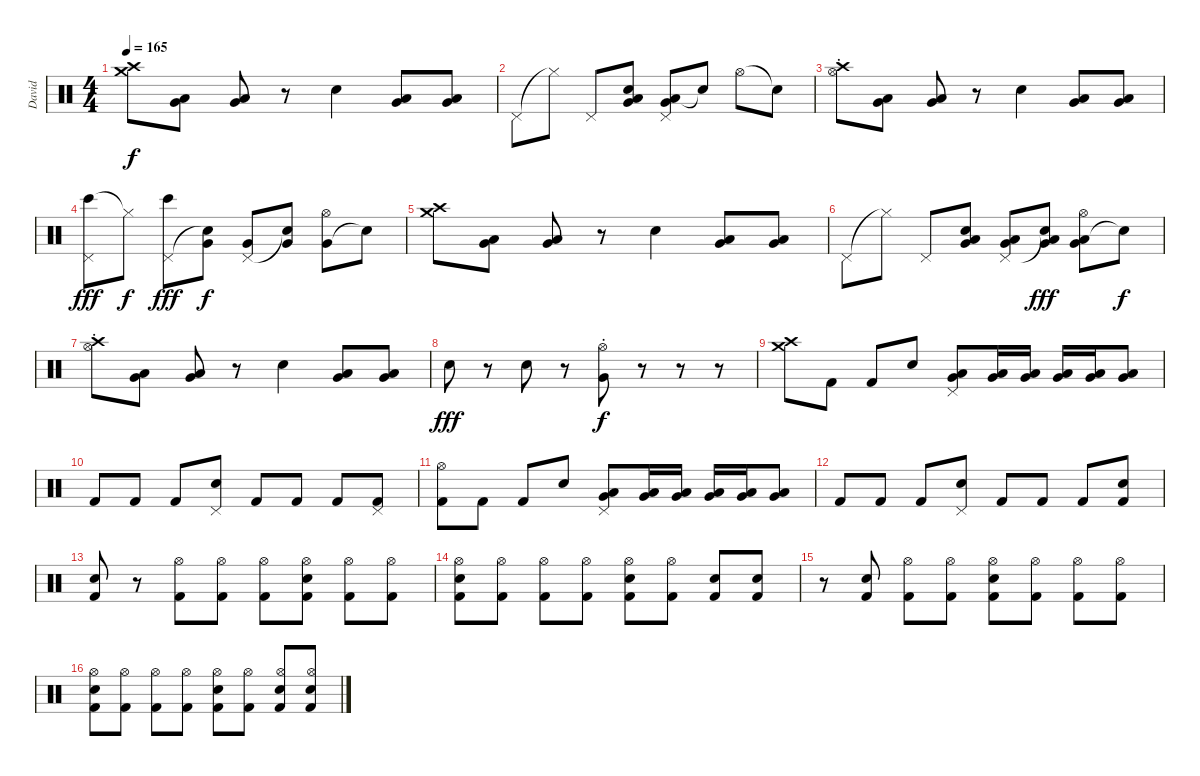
\track ("David" "David") {instrument percussion}
\staff {score}
\articulation defaults
\ts (4 4)
\tempo 165
\clef neutral
\ks c
("Crash high (hit)" "Crash medium (hit)").8{dy f} ("Low Floor Tom (hit)" "Very Low Tom (hit)").8 ("Low Floor Tom (hit)" "Very Low Tom (hit)").8 r.8 "Electric Snare (hit)".4 ("Low Floor Tom (hit)" "Very Low Tom (hit)").8 ("Low Floor Tom (hit)" "Very Low Tom (hit)").8 |
"Pedal Hi-Hat (hit)".8 "Hi-Hat (closed)"{t}.8 "Pedal Hi-Hat (hit)".8 ("Low Tom (hit)" "Very Low Tom (hit)" "Snare (hit)"{t}).8 ("Low Floor Tom (hit)" "Very Low Tom (hit)" "Pedal Hi-Hat (hit)").8 "Snare (hit)"{t}.8 "Hi-Hat (open)".8 "Snare (hit)"{t}.8 |
("Crash high (hit)" "Hi-Hat (open)"{st}).8 ("Low Floor Tom (hit)" "Very Low Tom (hit)").8 ("Low Floor Tom (hit)" "Very Low Tom (hit)").8 r.8 "Electric Snare (hit)".4 ("Low Floor Tom (hit)" "Very Low Tom (hit)").8 ("Low Floor Tom (hit)" "Very Low Tom (hit)").8 |
("Bongo High (hit)" "Pedal Hi-Hat (hit)").8{dy fff} "Hi-Hat (closed)"{t}.8{dy f} ("Bongo High (hit)" "Pedal Hi-Hat (hit)").8{dy fff} ("Very Low Tom (hit)" "Snare (hit)"{t}).8{dy f} ("Very Low Tom (hit)" "Pedal Hi-Hat (hit)").8 ("Very Low Tom (hit)" "Snare (hit)"{t}).8 ("Very Low Tom (hit)" "Hi-Hat (open)").8 "Snare (hit)"{t}.8 |
("Crash high (hit)" "Crash medium (hit)").8 ("Low Floor Tom (hit)" "Very Low Tom (hit)").8 ("Low Floor Tom (hit)" "Very Low Tom (hit)").8 r.8 "Electric Snare (hit)".4 ("Low Floor Tom (hit)" "Very Low Tom (hit)").8 ("Low Floor Tom (hit)" "Very Low Tom (hit)").8 |
"Pedal Hi-Hat (hit)".8 "Hi-Hat (closed)"{t}.8 "Pedal Hi-Hat (hit)".8 ("Low Tom (hit)" "Very Low Tom (hit)" "Snare (hit)").8 ("Low Floor Tom (hit)" "Very Low Tom (hit)" "Pedal Hi-Hat (hit)").8 ("Low Tom (hit)" "Very Low Tom (hit)" "Snare (hit)"{t}).8{dy fff} ("Low Floor Tom (hit)" "Very Low Tom (hit)" "Hi-Hat (open)").8 "Snare (hit)"{t}.8{dy f} |
("Crash high (hit)" "Hi-Hat (open)"{st}).8 ("Low Floor Tom (hit)" "Very Low Tom (hit)").8 ("Low Floor Tom (hit)" "Very Low Tom (hit)").8 r.8 "Electric Snare (hit)".4 ("Low Floor Tom (hit)" "Very Low Tom (hit)").8 ("Low Floor Tom (hit)" "Very Low Tom (hit)").8 |
"Electric Snare (hit)".8{dy fff} r.8 "Electric Snare (hit)".8 r.8 ("Very Low Tom (hit)" "Hi-Hat (open)"{st}).8{dy f} r.8 r.8 r.8 |
("Crash medium (hit)" "Crash high (hit)").8 "Kick (hit) 2".8 "Kick (hit) 2".8 "Electric Snare (hit)".8 ("Low Tom (hit)" "Very Low Tom (hit)" "Pedal Hi-Hat (hit)").8 ("Low Tom (hit)" "Very Low Tom (hit)").16 ("Low Tom (hit)" "Very Low Tom (hit)").16 ("Low Tom (hit)" "Very Low Tom (hit)").16 ("Low Tom (hit)" "Very Low Tom (hit)").16 ("Low Tom (hit)" "Very Low Tom (hit)").8 |
"Kick (hit) 2".8 "Kick (hit) 2".8 "Kick (hit) 2".8 ("Electric Snare (hit)" "Pedal Hi-Hat (hit)").8 "Kick (hit) 2".8 "Kick (hit) 2".8 "Kick (hit) 2".8 ("Pedal Hi-Hat (hit)" "Kick (hit) 2").8 |
("Hi-Hat (open)" "Kick (hit) 2").8 "Kick (hit) 2".8 "Kick (hit) 2".8 "Electric Snare (hit)".8 ("Low Tom (hit)" "Very Low Tom (hit)" "Pedal Hi-Hat (hit)").8 ("Low Tom (hit)" "Very Low Tom (hit)").16 ("Low Tom (hit)" "Very Low Tom (hit)").16 ("Low Tom (hit)" "Very Low Tom (hit)").16 ("Low Tom (hit)" "Very Low Tom (hit)").16 ("Low Tom (hit)" "Very Low Tom (hit)").8 |
"Kick (hit) 2".8 "Kick (hit) 2".8 "Kick (hit) 2".8 ("Electric Snare (hit)" "Pedal Hi-Hat (hit)").8 "Kick (hit) 2".8 "Kick (hit) 2".8 "Kick (hit) 2".8 ("Electric Snare (hit)" "Kick (hit) 2").8 |
("Electric Snare (hit)" "Kick (hit) 2").8 r.8 ("Hi-Hat (open)" "Kick (hit) 2").8 ("Hi-Hat (open)" "Kick (hit) 2").8 ("Hi-Hat (open)" "Kick (hit) 2").8 ("Electric Snare (hit)" "Hi-Hat (open)" "Kick (hit) 2").8 ("Hi-Hat (open)" "Kick (hit) 2").8 ("Hi-Hat (open)" "Kick (hit) 2").8 |
("Electric Snare (hit)" "Hi-Hat (open)" "Kick (hit) 2").8 ("Hi-Hat (open)" "Kick (hit) 2").8 ("Hi-Hat (open)" "Kick (hit) 2").8 ("Hi-Hat (open)" "Kick (hit) 2").8 ("Electric Snare (hit)" "Hi-Hat (open)" "Kick (hit) 2").8 ("Hi-Hat (open)" "Kick (hit) 2").8 ("Electric Snare (hit)" "Kick (hit) 2").8 ("Electric Snare (hit)" "Kick (hit) 2").8 |
r.8 ("Electric Snare (hit)" "Kick (hit) 2").8 ("Hi-Hat (open)" "Kick (hit) 2").8 ("Hi-Hat (open)" "Kick (hit) 2").8 ("Electric Snare (hit)" "Hi-Hat (open)" "Kick (hit) 2").8 ("Hi-Hat (open)" "Kick (hit) 2").8 ("Hi-Hat (open)" "Kick (hit) 2").8 ("Hi-Hat (open)" "Kick (hit) 2").8 |
("Electric Snare (hit)" "Hi-Hat (open)" "Kick (hit) 2").8 ("Hi-Hat (open)" "Kick (hit) 2").8 ("Hi-Hat (open)" "Kick (hit) 2").8 ("Hi-Hat (open)" "Kick (hit) 2").8 ("Electric Snare (hit)" "Hi-Hat (open)" "Kick (hit) 2").8 ("Hi-Hat (open)" "Kick (hit) 2").8 ("Electric Snare (hit)" "Hi-Hat (open)" "Kick (hit) 2").8 ("Electric Snare (hit)" "Hi-Hat (open)" "Kick (hit) 2").8
